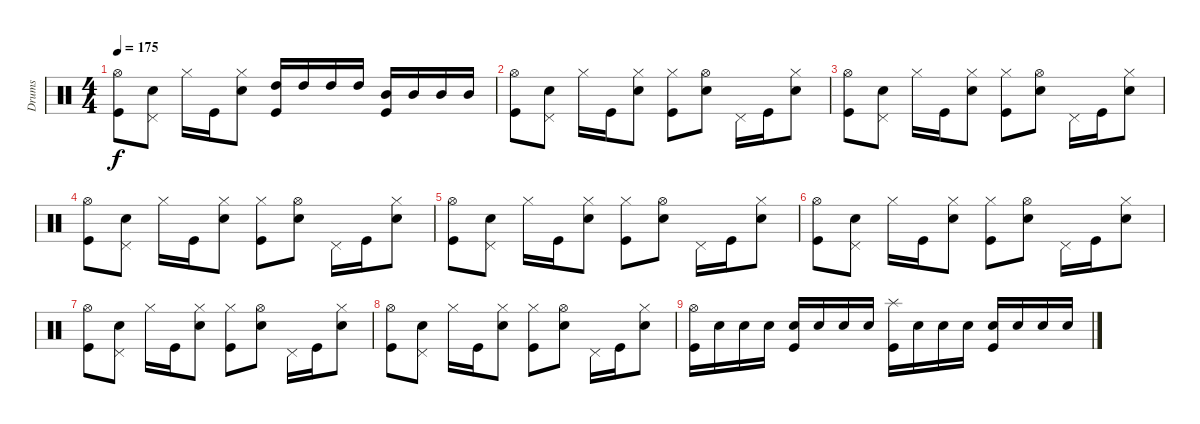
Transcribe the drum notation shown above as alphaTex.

\track ("Drums" "Drums") {instrument percussion}
\staff {score}
\articulation defaults
\ts (4 4)
\tempo 175
\clef neutral
\ks c
("Hi-Hat (open)" "Kick (hit)").8{dy f} ("Pedal Hi-Hat (hit)" "Electric Snare (hit)").8 "Hi-Hat (closed)".16 "Kick (hit)".16 ("Hi-Hat (closed)" "Electric Snare (hit)").8 ("High Tom (hit)" "Kick (hit)").16 "High Tom (hit)".16 "High Tom (hit)".16 "High Tom (hit)".16 ("Mid Tom (hit)" "Kick (hit)").16 "Mid Tom (hit)".16 "Mid Tom (hit)".16 "Mid Tom (hit)".16 |
("Hi-Hat (open)" "Kick (hit)").8 ("Pedal Hi-Hat (hit)" "Electric Snare (hit)").8 "Hi-Hat (closed)".16 "Kick (hit)".16 ("Hi-Hat (closed)" "Electric Snare (hit)").8 ("Hi-Hat (closed)" "Kick (hit)").8 ("Hi-Hat (open)" "Electric Snare (hit)").8 "Pedal Hi-Hat (hit)".16 "Kick (hit)".16 ("Hi-Hat (closed)" "Electric Snare (hit)").8 |
("Hi-Hat (open)" "Kick (hit)").8 ("Pedal Hi-Hat (hit)" "Electric Snare (hit)").8 "Hi-Hat (closed)".16 "Kick (hit)".16 ("Hi-Hat (closed)" "Electric Snare (hit)").8 ("Hi-Hat (closed)" "Kick (hit)").8 ("Hi-Hat (open)" "Electric Snare (hit)").8 "Pedal Hi-Hat (hit)".16 "Kick (hit)".16 ("Hi-Hat (closed)" "Electric Snare (hit)").8 |
("Hi-Hat (open)" "Kick (hit)").8 ("Pedal Hi-Hat (hit)" "Electric Snare (hit)").8 "Hi-Hat (closed)".16 "Kick (hit)".16 ("Hi-Hat (closed)" "Electric Snare (hit)").8 ("Hi-Hat (closed)" "Kick (hit)").8 ("Hi-Hat (open)" "Electric Snare (hit)").8 "Pedal Hi-Hat (hit)".16 "Kick (hit)".16 ("Hi-Hat (closed)" "Electric Snare (hit)").8 |
("Hi-Hat (open)" "Kick (hit)").8 ("Pedal Hi-Hat (hit)" "Electric Snare (hit)").8 "Hi-Hat (closed)".16 "Kick (hit)".16 ("Hi-Hat (closed)" "Electric Snare (hit)").8 ("Hi-Hat (closed)" "Kick (hit)").8 ("Hi-Hat (open)" "Electric Snare (hit)").8 "Pedal Hi-Hat (hit)".16 "Kick (hit)".16 ("Hi-Hat (closed)" "Electric Snare (hit)").8 |
("Hi-Hat (open)" "Kick (hit)").8 ("Pedal Hi-Hat (hit)" "Electric Snare (hit)").8 "Hi-Hat (closed)".16 "Kick (hit)".16 ("Hi-Hat (closed)" "Electric Snare (hit)").8 ("Hi-Hat (closed)" "Kick (hit)").8 ("Hi-Hat (open)" "Electric Snare (hit)").8 "Pedal Hi-Hat (hit)".16 "Kick (hit)".16 ("Hi-Hat (closed)" "Electric Snare (hit)").8 |
("Hi-Hat (open)" "Kick (hit)").8 ("Pedal Hi-Hat (hit)" "Electric Snare (hit)").8 "Hi-Hat (closed)".16 "Kick (hit)".16 ("Hi-Hat (closed)" "Electric Snare (hit)").8 ("Hi-Hat (closed)" "Kick (hit)").8 ("Hi-Hat (open)" "Electric Snare (hit)").8 "Pedal Hi-Hat (hit)".16 "Kick (hit)".16 ("Hi-Hat (closed)" "Electric Snare (hit)").8 |
("Hi-Hat (open)" "Kick (hit)").8 ("Pedal Hi-Hat (hit)" "Electric Snare (hit)").8 "Hi-Hat (closed)".16 "Kick (hit)".16 ("Hi-Hat (closed)" "Electric Snare (hit)").8 ("Hi-Hat (closed)" "Kick (hit)").8 ("Hi-Hat (open)" "Electric Snare (hit)").8 "Pedal Hi-Hat (hit)".16 "Kick (hit)".16 ("Hi-Hat (closed)" "Electric Snare (hit)").8 |
("Hi-Hat (open)" "Kick (hit)").16 "Electric Snare (hit)".16 "Electric Snare (hit)".16 "Electric Snare (hit)".16 ("Electric Snare (hit)" "Kick (hit)").16 "Electric Snare (hit)".16 "Electric Snare (hit)".16 "Electric Snare (hit)".16 ("Splash (hit)" "Kick (hit)").16 "Electric Snare (hit)".16 "Electric Snare (hit)".16 "Electric Snare (hit)".16 ("Electric Snare (hit)" "Kick (hit)").16 "Electric Snare (hit)".16 "Electric Snare (hit)".16 "Electric Snare (hit)".16
